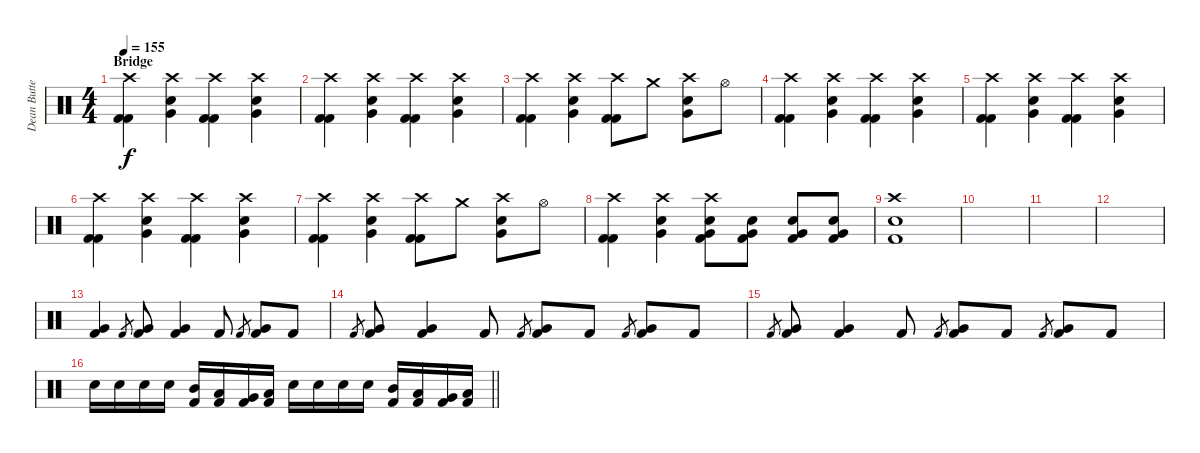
\track ("Dean Butterworth [Drums]" "Dean Butte") {instrument percussion}
\staff {score}
\articulation defaults
\ts (4 4)
\section ("" "Bridge")
\tempo 155
\clef neutral
\ks c
("Crash high (hit)" "Kick (hit) 2" "Kick (hit) 2").4{dy f} ("Crash high (hit)" "Very Low Tom (hit)" "Electric Snare (hit)").4 ("Crash high (hit)" "Kick (hit) 2" "Kick (hit) 2").4 ("Crash high (hit)" "Very Low Tom (hit)" "Electric Snare (hit)").4 |
("Crash high (hit)" "Kick (hit) 2" "Kick (hit) 2").4 ("Crash high (hit)" "Very Low Tom (hit)" "Electric Snare (hit)").4 ("Crash high (hit)" "Kick (hit) 2" "Kick (hit) 2").4 ("Crash high (hit)" "Very Low Tom (hit)" "Electric Snare (hit)").4 |
("Crash high (hit)" "Kick (hit) 2" "Kick (hit) 2").4 ("Crash high (hit)" "Very Low Tom (hit)" "Electric Snare (hit)").4 ("Crash high (hit)" "Kick (hit) 2" "Kick (hit) 2").8 "Crash medium (hit)".8 ("Crash high (hit)" "Very Low Tom (hit)" "Electric Snare (hit)").8 "Hi-Hat (open)".8 |
("Crash high (hit)" "Kick (hit) 2" "Kick (hit) 2").4 ("Crash high (hit)" "Very Low Tom (hit)" "Electric Snare (hit)").4 ("Crash high (hit)" "Kick (hit) 2" "Kick (hit) 2").4 ("Crash high (hit)" "Very Low Tom (hit)" "Electric Snare (hit)").4 |
("Crash high (hit)" "Kick (hit) 2" "Kick (hit) 2").4 ("Crash high (hit)" "Very Low Tom (hit)" "Electric Snare (hit)").4 ("Crash high (hit)" "Kick (hit) 2" "Kick (hit) 2").4 ("Crash high (hit)" "Very Low Tom (hit)" "Electric Snare (hit)").4 |
("Crash high (hit)" "Kick (hit) 2" "Kick (hit) 2").4 ("Crash high (hit)" "Very Low Tom (hit)" "Electric Snare (hit)").4 ("Crash high (hit)" "Kick (hit) 2" "Kick (hit) 2").4 ("Crash high (hit)" "Very Low Tom (hit)" "Electric Snare (hit)").4 |
("Crash high (hit)" "Kick (hit) 2" "Kick (hit) 2").4 ("Crash high (hit)" "Very Low Tom (hit)" "Electric Snare (hit)").4 ("Crash high (hit)" "Kick (hit) 2" "Kick (hit) 2").8 "Crash medium (hit)".8 ("Crash high (hit)" "Very Low Tom (hit)" "Electric Snare (hit)").8 "Hi-Hat (open)".8 |
("Crash high (hit)" "Kick (hit) 2" "Kick (hit) 2").4 ("Crash high (hit)" "Very Low Tom (hit)" "Electric Snare (hit)").4 ("Crash high (hit)" "Very Low Tom (hit)" "Electric Snare (hit)" "Kick (hit) 2").8 ("Very Low Tom (hit)" "Electric Snare (hit)" "Kick (hit) 2").8 ("Very Low Tom (hit)" "Electric Snare (hit)" "Kick (hit) 2").8 ("Very Low Tom (hit)" "Electric Snare (hit)" "Kick (hit) 2").8 |
("Crash high (hit)" "Electric Snare (hit)" "Kick (hit) 2").1 |
|
|
|
("Very Low Tom (hit)" "Kick (hit) 2").4 "Kick (hit) 2".8{gr} ("Very Low Tom (hit)" "Kick (hit) 2").8 ("Very Low Tom (hit)" "Kick (hit) 2").4 "Kick (hit) 2".8 "Kick (hit) 2".8{gr} ("Very Low Tom (hit)" "Kick (hit) 2").8 "Kick (hit) 2".8 |
"Kick (hit) 2".8{gr} ("Very Low Tom (hit)" "Kick (hit) 2").8 ("Very Low Tom (hit)" "Kick (hit) 2").4 "Kick (hit) 2".8 "Kick (hit) 2".8{gr} ("Very Low Tom (hit)" "Kick (hit) 2").8 "Kick (hit) 2".8 "Kick (hit) 2".8{gr} ("Very Low Tom (hit)" "Kick (hit) 2").8 "Kick (hit) 2".8 |
"Kick (hit) 2".8{gr} ("Very Low Tom (hit)" "Kick (hit) 2").8 ("Very Low Tom (hit)" "Kick (hit) 2").4 "Kick (hit) 2".8 "Kick (hit) 2".8{gr} ("Very Low Tom (hit)" "Kick (hit) 2").8 "Kick (hit) 2".8 "Kick (hit) 2".8{gr} ("Very Low Tom (hit)" "Kick (hit) 2").8 "Kick (hit) 2".8 |
\barLineRight lightlight "Electric Snare (hit)".16 "Electric Snare (hit)".16 "Electric Snare (hit)".16 "Electric Snare (hit)".16
("Mid Tom (hit)" "Kick (hit) 2").16 ("Low Tom (hit)" "Kick (hit) 2").16 ("Very Low Tom (hit)" "Kick (hit) 2").16 ("Low Floor Tom (hit)" "Kick (hit) 2").16 "Electric Snare (hit)".16 "Electric Snare (hit)".16 "Electric Snare (hit)".16 "Electric Snare (hit)".16 ("Mid Tom (hit)" "Kick (hit) 2").16 ("Low Tom (hit)" "Kick (hit) 2").16 ("Very Low Tom (hit)" "Kick (hit) 2").16 ("Low Floor Tom (hit)" "Kick (hit) 2").16
